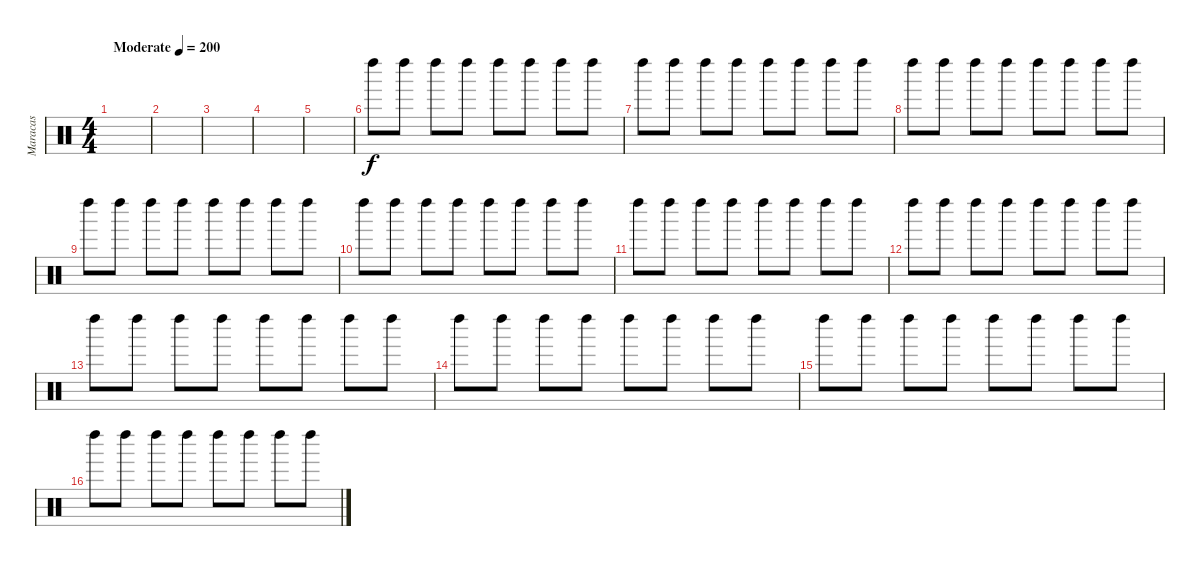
\track ("Maracas" "Maracas") {instrument percussion}
\staff {score}
\articulation defaults
\ts (4 4)
\tempo (200 "Moderate")
\clef neutral
\ks c
|
|
|
|
|
"Left Maraca (hit)".8 "Left Maraca (hit)".8 "Left Maraca (hit)".8 "Left Maraca (hit)".8 "Left Maraca (hit)".8 "Left Maraca (hit)".8 "Left Maraca (hit)".8 "Left Maraca (hit)".8 |
"Left Maraca (hit)".8 "Left Maraca (hit)".8 "Left Maraca (hit)".8 "Left Maraca (hit)".8 "Left Maraca (hit)".8 "Left Maraca (hit)".8 "Left Maraca (hit)".8 "Left Maraca (hit)".8 |
"Left Maraca (hit)".8 "Left Maraca (hit)".8 "Left Maraca (hit)".8 "Left Maraca (hit)".8 "Left Maraca (hit)".8 "Left Maraca (hit)".8 "Left Maraca (hit)".8 "Left Maraca (hit)".8 |
"Left Maraca (hit)".8 "Left Maraca (hit)".8 "Left Maraca (hit)".8 "Left Maraca (hit)".8 "Left Maraca (hit)".8 "Left Maraca (hit)".8 "Left Maraca (hit)".8 "Left Maraca (hit)".8 |
"Left Maraca (hit)".8 "Left Maraca (hit)".8 "Left Maraca (hit)".8 "Left Maraca (hit)".8 "Left Maraca (hit)".8 "Left Maraca (hit)".8 "Left Maraca (hit)".8 "Left Maraca (hit)".8 |
"Left Maraca (hit)".8 "Left Maraca (hit)".8 "Left Maraca (hit)".8 "Left Maraca (hit)".8 "Left Maraca (hit)".8 "Left Maraca (hit)".8 "Left Maraca (hit)".8 "Left Maraca (hit)".8 |
"Left Maraca (hit)".8 "Left Maraca (hit)".8 "Left Maraca (hit)".8 "Left Maraca (hit)".8 "Left Maraca (hit)".8 "Left Maraca (hit)".8 "Left Maraca (hit)".8 "Left Maraca (hit)".8 |
"Left Maraca (hit)".8 "Left Maraca (hit)".8 "Left Maraca (hit)".8 "Left Maraca (hit)".8 "Left Maraca (hit)".8 "Left Maraca (hit)".8 "Left Maraca (hit)".8 "Left Maraca (hit)".8 |
"Left Maraca (hit)".8 "Left Maraca (hit)".8 "Left Maraca (hit)".8 "Left Maraca (hit)".8 "Left Maraca (hit)".8 "Left Maraca (hit)".8 "Left Maraca (hit)".8 "Left Maraca (hit)".8 |
"Left Maraca (hit)".8 "Left Maraca (hit)".8 "Left Maraca (hit)".8 "Left Maraca (hit)".8 "Left Maraca (hit)".8 "Left Maraca (hit)".8 "Left Maraca (hit)".8 "Left Maraca (hit)".8 |
"Left Maraca (hit)".8 "Left Maraca (hit)".8 "Left Maraca (hit)".8 "Left Maraca (hit)".8 "Left Maraca (hit)".8 "Left Maraca (hit)".8 "Left Maraca (hit)".8 "Left Maraca (hit)".8
